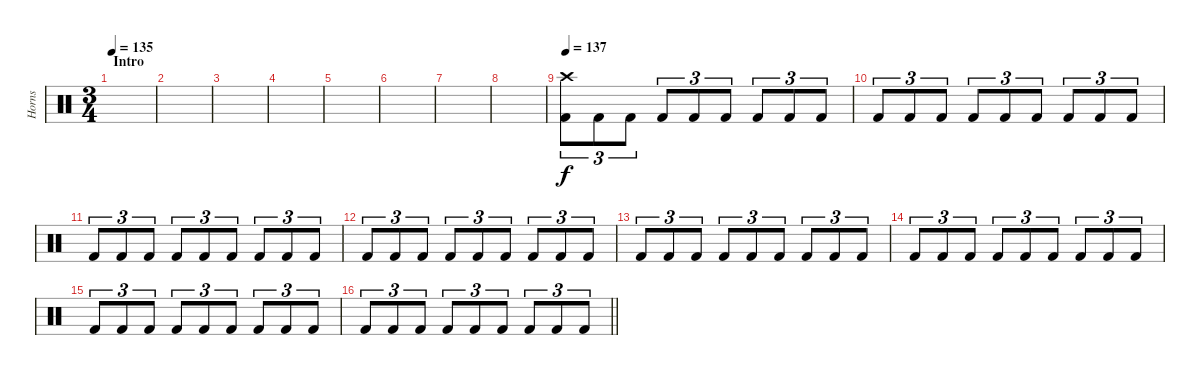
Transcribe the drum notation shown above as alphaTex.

\track ("Horns" "Horns") {instrument percussion}
\staff {score}
\articulation defaults
\ts (3 4)
\section ("" "Intro")
\tempo 135
\clef neutral
\ks c
|
|
|
|
|
|
|
|
\tempo 137
("Crash high (hit)" "Kick (hit) 2").8{tu (3 2)} "Kick (hit) 2".8{tu (3 2)} "Kick (hit) 2".8{tu (3 2)} "Kick (hit) 2".8{tu (3 2)} "Kick (hit) 2".8{tu (3 2)} "Kick (hit) 2".8{tu (3 2)} "Kick (hit) 2".8{tu (3 2)} "Kick (hit) 2".8{tu (3 2)} "Kick (hit) 2".8{tu (3 2)} |
"Kick (hit) 2".8{tu (3 2)} "Kick (hit) 2".8{tu (3 2)} "Kick (hit) 2".8{tu (3 2)} "Kick (hit) 2".8{tu (3 2)} "Kick (hit) 2".8{tu (3 2)} "Kick (hit) 2".8{tu (3 2)} "Kick (hit) 2".8{tu (3 2)} "Kick (hit) 2".8{tu (3 2)} "Kick (hit) 2".8{tu (3 2)} |
"Kick (hit) 2".8{tu (3 2)} "Kick (hit) 2".8{tu (3 2)} "Kick (hit) 2".8{tu (3 2)} "Kick (hit) 2".8{tu (3 2)} "Kick (hit) 2".8{tu (3 2)} "Kick (hit) 2".8{tu (3 2)} "Kick (hit) 2".8{tu (3 2)} "Kick (hit) 2".8{tu (3 2)} "Kick (hit) 2".8{tu (3 2)} |
"Kick (hit) 2".8{tu (3 2)} "Kick (hit) 2".8{tu (3 2)} "Kick (hit) 2".8{tu (3 2)} "Kick (hit) 2".8{tu (3 2)} "Kick (hit) 2".8{tu (3 2)} "Kick (hit) 2".8{tu (3 2)} "Kick (hit) 2".8{tu (3 2)} "Kick (hit) 2".8{tu (3 2)} "Kick (hit) 2".8{tu (3 2)} |
"Kick (hit) 2".8{tu (3 2)} "Kick (hit) 2".8{tu (3 2)} "Kick (hit) 2".8{tu (3 2)} "Kick (hit) 2".8{tu (3 2)} "Kick (hit) 2".8{tu (3 2)} "Kick (hit) 2".8{tu (3 2)} "Kick (hit) 2".8{tu (3 2)} "Kick (hit) 2".8{tu (3 2)} "Kick (hit) 2".8{tu (3 2)} |
"Kick (hit) 2".8{tu (3 2)} "Kick (hit) 2".8{tu (3 2)} "Kick (hit) 2".8{tu (3 2)} "Kick (hit) 2".8{tu (3 2)} "Kick (hit) 2".8{tu (3 2)} "Kick (hit) 2".8{tu (3 2)} "Kick (hit) 2".8{tu (3 2)} "Kick (hit) 2".8{tu (3 2)} "Kick (hit) 2".8{tu (3 2)} |
"Kick (hit) 2".8{tu (3 2)} "Kick (hit) 2".8{tu (3 2)} "Kick (hit) 2".8{tu (3 2)} "Kick (hit) 2".8{tu (3 2)} "Kick (hit) 2".8{tu (3 2)} "Kick (hit) 2".8{tu (3 2)} "Kick (hit) 2".8{tu (3 2)} "Kick (hit) 2".8{tu (3 2)} "Kick (hit) 2".8{tu (3 2)} |
\barLineRight lightlight "Kick (hit) 2".8{tu (3 2)} "Kick (hit) 2".8{tu (3 2)} "Kick (hit) 2".8{tu (3 2)} "Kick (hit) 2".8{tu (3 2)} "Kick (hit) 2".8{tu (3 2)} "Kick (hit) 2".8{tu (3 2)} "Kick (hit) 2".8{tu (3 2)} "Kick (hit) 2".8{tu (3 2)} "Kick (hit) 2".8{tu (3 2)}
